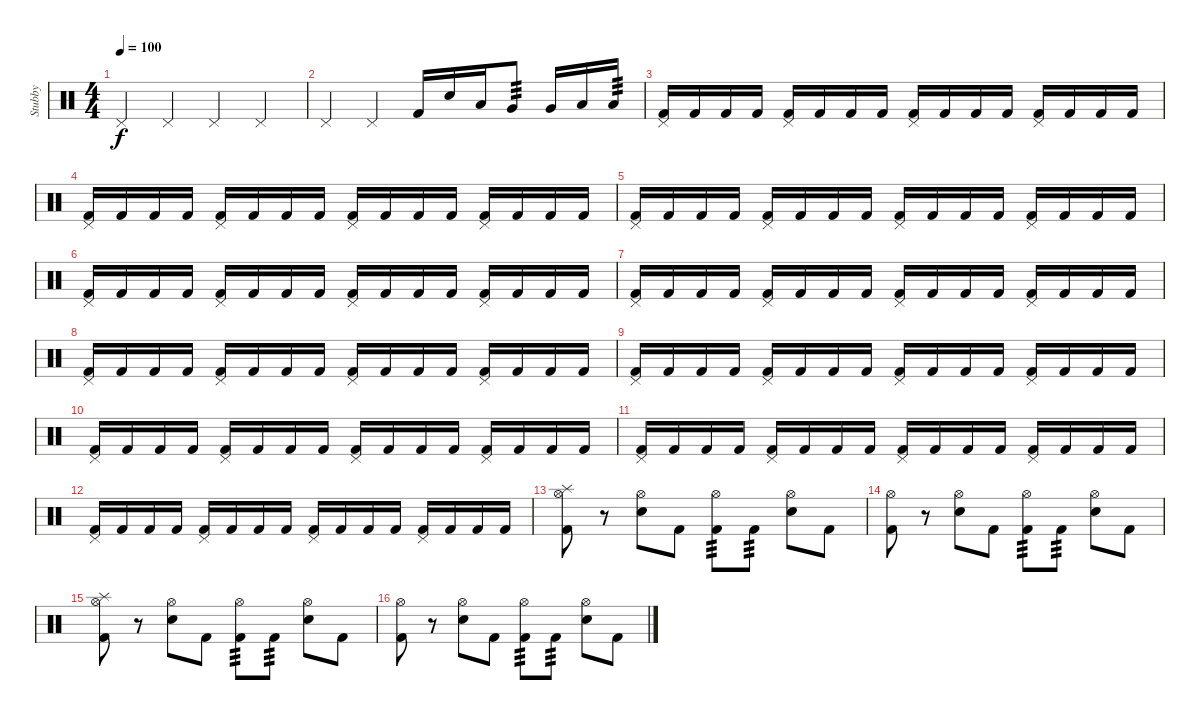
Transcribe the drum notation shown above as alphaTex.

\track ("Stubby" "Stubby") {instrument percussion}
\staff {score}
\articulation defaults
\ts (4 4)
\tempo 100
\clef neutral
\ks c "Pedal Hi-Hat (hit)".4{dy f} "Pedal Hi-Hat (hit)".4 "Pedal Hi-Hat (hit)".4 "Pedal Hi-Hat (hit)".4
|
"Pedal Hi-Hat (hit)".4 "Pedal Hi-Hat (hit)".4 "Kick (hit) 2".16 "Electric Snare (hit)".16 "Low Tom (hit)".16 "Very Low Tom (hit)".8{tp 3} "Very Low Tom (hit)".16 "Low Tom (hit)".16 "Low Floor Tom (hit)".16{tp 3} |
("Pedal Hi-Hat (hit)" "Kick (hit) 2").16 "Kick (hit) 2".16 "Kick (hit) 2".16 "Kick (hit) 2".16 ("Pedal Hi-Hat (hit)" "Kick (hit) 2").16 "Kick (hit) 2".16 "Kick (hit) 2".16 "Kick (hit) 2".16 ("Pedal Hi-Hat (hit)" "Kick (hit) 2").16 "Kick (hit) 2".16 "Kick (hit) 2".16 "Kick (hit) 2".16 ("Pedal Hi-Hat (hit)" "Kick (hit) 2").16 "Kick (hit) 2".16 "Kick (hit) 2".16 "Kick (hit) 2".16 |
("Pedal Hi-Hat (hit)" "Kick (hit) 2").16 "Kick (hit) 2".16 "Kick (hit) 2".16 "Kick (hit) 2".16 ("Pedal Hi-Hat (hit)" "Kick (hit) 2").16 "Kick (hit) 2".16 "Kick (hit) 2".16 "Kick (hit) 2".16 ("Pedal Hi-Hat (hit)" "Kick (hit) 2").16 "Kick (hit) 2".16 "Kick (hit) 2".16 "Kick (hit) 2".16 ("Pedal Hi-Hat (hit)" "Kick (hit) 2").16 "Kick (hit) 2".16 "Kick (hit) 2".16 "Kick (hit) 2".16 |
("Pedal Hi-Hat (hit)" "Kick (hit) 2").16 "Kick (hit) 2".16 "Kick (hit) 2".16 "Kick (hit) 2".16 ("Pedal Hi-Hat (hit)" "Kick (hit) 2").16 "Kick (hit) 2".16 "Kick (hit) 2".16 "Kick (hit) 2".16 ("Pedal Hi-Hat (hit)" "Kick (hit) 2").16 "Kick (hit) 2".16 "Kick (hit) 2".16 "Kick (hit) 2".16 ("Pedal Hi-Hat (hit)" "Kick (hit) 2").16 "Kick (hit) 2".16 "Kick (hit) 2".16 "Kick (hit) 2".16 |
("Pedal Hi-Hat (hit)" "Kick (hit) 2").16 "Kick (hit) 2".16 "Kick (hit) 2".16 "Kick (hit) 2".16 ("Pedal Hi-Hat (hit)" "Kick (hit) 2").16 "Kick (hit) 2".16 "Kick (hit) 2".16 "Kick (hit) 2".16 ("Pedal Hi-Hat (hit)" "Kick (hit) 2").16 "Kick (hit) 2".16 "Kick (hit) 2".16 "Kick (hit) 2".16 ("Pedal Hi-Hat (hit)" "Kick (hit) 2").16 "Kick (hit) 2".16 "Kick (hit) 2".16 "Kick (hit) 2".16 |
("Pedal Hi-Hat (hit)" "Kick (hit) 2").16 "Kick (hit) 2".16 "Kick (hit) 2".16 "Kick (hit) 2".16 ("Pedal Hi-Hat (hit)" "Kick (hit) 2").16 "Kick (hit) 2".16 "Kick (hit) 2".16 "Kick (hit) 2".16 ("Pedal Hi-Hat (hit)" "Kick (hit) 2").16 "Kick (hit) 2".16 "Kick (hit) 2".16 "Kick (hit) 2".16 ("Pedal Hi-Hat (hit)" "Kick (hit) 2").16 "Kick (hit) 2".16 "Kick (hit) 2".16 "Kick (hit) 2".16 |
("Pedal Hi-Hat (hit)" "Kick (hit) 2").16 "Kick (hit) 2".16 "Kick (hit) 2".16 "Kick (hit) 2".16 ("Pedal Hi-Hat (hit)" "Kick (hit) 2").16 "Kick (hit) 2".16 "Kick (hit) 2".16 "Kick (hit) 2".16 ("Pedal Hi-Hat (hit)" "Kick (hit) 2").16 "Kick (hit) 2".16 "Kick (hit) 2".16 "Kick (hit) 2".16 ("Pedal Hi-Hat (hit)" "Kick (hit) 2").16 "Kick (hit) 2".16 "Kick (hit) 2".16 "Kick (hit) 2".16 |
("Pedal Hi-Hat (hit)" "Kick (hit) 2").16 "Kick (hit) 2".16 "Kick (hit) 2".16 "Kick (hit) 2".16 ("Pedal Hi-Hat (hit)" "Kick (hit) 2").16 "Kick (hit) 2".16 "Kick (hit) 2".16 "Kick (hit) 2".16 ("Pedal Hi-Hat (hit)" "Kick (hit) 2").16 "Kick (hit) 2".16 "Kick (hit) 2".16 "Kick (hit) 2".16 ("Pedal Hi-Hat (hit)" "Kick (hit) 2").16 "Kick (hit) 2".16 "Kick (hit) 2".16 "Kick (hit) 2".16 |
("Pedal Hi-Hat (hit)" "Kick (hit) 2").16 "Kick (hit) 2".16 "Kick (hit) 2".16 "Kick (hit) 2".16 ("Pedal Hi-Hat (hit)" "Kick (hit) 2").16 "Kick (hit) 2".16 "Kick (hit) 2".16 "Kick (hit) 2".16 ("Pedal Hi-Hat (hit)" "Kick (hit) 2").16 "Kick (hit) 2".16 "Kick (hit) 2".16 "Kick (hit) 2".16 ("Pedal Hi-Hat (hit)" "Kick (hit) 2").16 "Kick (hit) 2".16 "Kick (hit) 2".16 "Kick (hit) 2".16 |
("Pedal Hi-Hat (hit)" "Kick (hit) 2").16 "Kick (hit) 2".16 "Kick (hit) 2".16 "Kick (hit) 2".16 ("Pedal Hi-Hat (hit)" "Kick (hit) 2").16 "Kick (hit) 2".16 "Kick (hit) 2".16 "Kick (hit) 2".16 ("Pedal Hi-Hat (hit)" "Kick (hit) 2").16 "Kick (hit) 2".16 "Kick (hit) 2".16 "Kick (hit) 2".16 ("Pedal Hi-Hat (hit)" "Kick (hit) 2").16 "Kick (hit) 2".16 "Kick (hit) 2".16 "Kick (hit) 2".16 |
("Pedal Hi-Hat (hit)" "Kick (hit) 2").16 "Kick (hit) 2".16 "Kick (hit) 2".16 "Kick (hit) 2".16 ("Pedal Hi-Hat (hit)" "Kick (hit) 2").16 "Kick (hit) 2".16 "Kick (hit) 2".16 "Kick (hit) 2".16 ("Pedal Hi-Hat (hit)" "Kick (hit) 2").16 "Kick (hit) 2".16 "Kick (hit) 2".16 "Kick (hit) 2".16 ("Pedal Hi-Hat (hit)" "Kick (hit) 2").16 "Kick (hit) 2".16 "Kick (hit) 2".16 "Kick (hit) 2".16 |
("Splash (hit)" "Hi-Hat (open)" "Kick (hit) 2").8 r.8 ("Hi-Hat (open)" "Electric Snare (hit)").8 "Kick (hit) 2".8 ("Hi-Hat (open)" "Kick (hit) 2").8{tp 3} "Kick (hit) 2".8{tp 3} ("Hi-Hat (open)" "Electric Snare (hit)").8 "Kick (hit) 2".8 |
("Hi-Hat (open)" "Kick (hit) 2").8 r.8 ("Hi-Hat (open)" "Electric Snare (hit)").8 "Kick (hit) 2".8 ("Hi-Hat (open)" "Kick (hit) 2").8{tp 3} "Kick (hit) 2".8{tp 3} ("Hi-Hat (open)" "Electric Snare (hit)").8 "Kick (hit) 2".8 |
("Splash (hit)" "Hi-Hat (open)" "Kick (hit) 2").8 r.8 ("Hi-Hat (open)" "Electric Snare (hit)").8 "Kick (hit) 2".8 ("Hi-Hat (open)" "Kick (hit) 2").8{tp 3} "Kick (hit) 2".8{tp 3} ("Hi-Hat (open)" "Electric Snare (hit)").8 "Kick (hit) 2".8 |
("Hi-Hat (open)" "Kick (hit) 2").8 r.8 ("Hi-Hat (open)" "Electric Snare (hit)").8 "Kick (hit) 2".8 ("Hi-Hat (open)" "Kick (hit) 2").8{tp 3} "Kick (hit) 2".8{tp 3} ("Hi-Hat (open)" "Electric Snare (hit)").8 "Kick (hit) 2".8
